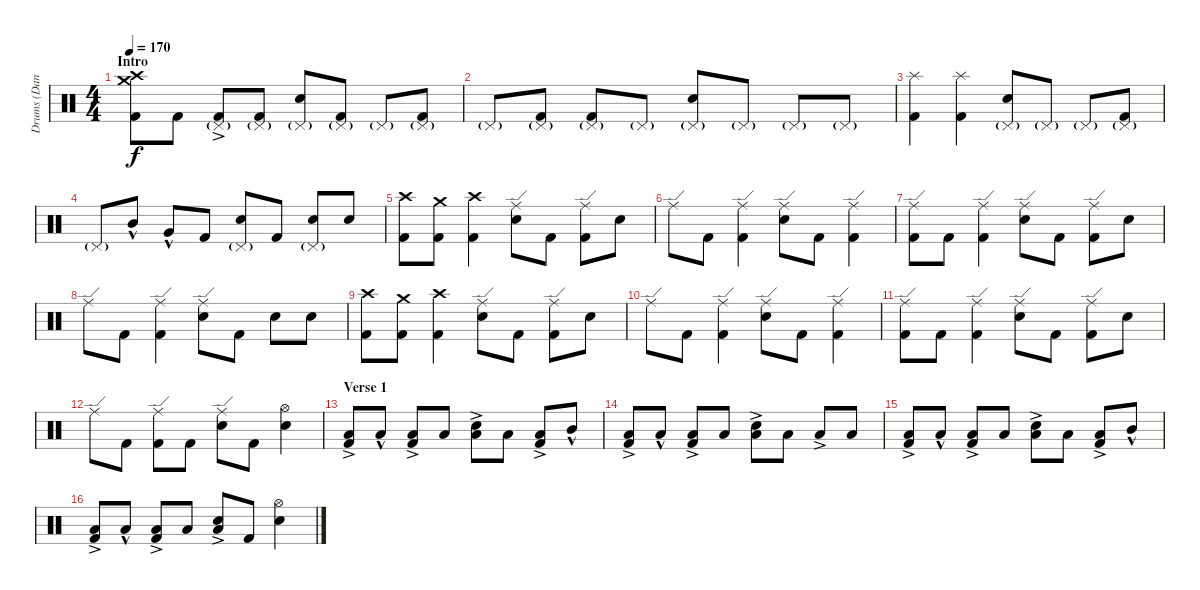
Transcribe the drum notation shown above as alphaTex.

\track ("Drums (Dan Trapp)" "Drums (Dan") {instrument percussion}
\staff {score}
\articulation defaults
\ts (4 4)
\section ("" "Intro")
\tempo 170
\clef neutral
\ks c
("Kick (hit) 2" "Crash medium (hit)" "Crash high (hit)").8{dy f} "Kick (hit) 2".8 ("Kick (hit) 2"{ac} "Pedal Hi-Hat (hit)"{g}).8 ("Kick (hit) 2" "Pedal Hi-Hat (hit)"{g}).8 ("Snare (hit) 2" "Pedal Hi-Hat (hit)"{g}).8 ("Kick (hit) 2" "Pedal Hi-Hat (hit)"{g}).8 "Pedal Hi-Hat (hit)"{g}.8 ("Kick (hit) 2" "Pedal Hi-Hat (hit)"{g}).8 |
"Pedal Hi-Hat (hit)"{g}.8 ("Kick (hit) 2" "Pedal Hi-Hat (hit)"{g}).8 ("Kick (hit) 2" "Pedal Hi-Hat (hit)"{g}).8 "Pedal Hi-Hat (hit)"{g}.8 ("Snare (hit) 2" "Pedal Hi-Hat (hit)"{g}).8 "Pedal Hi-Hat (hit)"{g}.8 "Pedal Hi-Hat (hit)"{g}.8 "Pedal Hi-Hat (hit)"{g}.8 |
("Kick (hit) 2" "Splash (hit)").4 ("Kick (hit) 2" "Splash (hit)").4 ("Snare (hit) 2" "Pedal Hi-Hat (hit)"{g}).8 "Pedal Hi-Hat (hit)"{g}.8 "Pedal Hi-Hat (hit)"{g}.8 ("Kick (hit) 2" "Pedal Hi-Hat (hit)"{g}).8 |
"Pedal Hi-Hat (hit)"{g}.8 "Mid Tom (hit)"{hac}.8 "Very Low Tom (hit)"{hac}.8 "Kick (hit) 2".8 ("Snare (hit) 2" "Pedal Hi-Hat (hit)"{g}).8 "Kick (hit) 2".8 ("Snare (hit) 2" "Pedal Hi-Hat (hit)"{g}).8 "Snare (hit) 2".8 |
("Kick (hit) 2" "Crash high (hit)").8 ("Kick (hit) 2" "Crash medium (hit)").8 ("Kick (hit) 2" "Crash high (hit)").4 ("Snare (hit) 2" "Ride (edge)").8 "Kick (hit) 2".8 ("Kick (hit) 2" "Ride (edge)").8 "Snare (hit) 2".8 |
"Ride (edge)".8 "Kick (hit) 2".8 ("Kick (hit) 2" "Ride (edge)").4 ("Snare (hit) 2" "Ride (edge)").8 "Kick (hit) 2".8 ("Kick (hit) 2" "Ride (edge)").4 |
("Kick (hit) 2" "Ride (edge)").8 "Kick (hit) 2".8 ("Kick (hit) 2" "Ride (edge)").4 ("Snare (hit) 2" "Ride (edge)").8 "Kick (hit) 2".8 ("Kick (hit) 2" "Ride (edge)").8 "Snare (hit) 2".8 |
"Ride (edge)".8 "Kick (hit) 2".8 ("Kick (hit) 2" "Ride (edge)").4 ("Snare (hit) 2" "Ride (edge)").8 "Kick (hit) 2".8 "Snare (hit) 2".8 "Snare (hit) 2".8 |
("Kick (hit) 2" "Crash high (hit)").8 ("Kick (hit) 2" "Crash medium (hit)").8 ("Kick (hit) 2" "Crash high (hit)").4 ("Snare (hit) 2" "Ride (edge)").8 "Kick (hit) 2".8 ("Kick (hit) 2" "Ride (edge)").8 "Snare (hit) 2".8 |
"Ride (edge)".8 "Kick (hit) 2".8 ("Kick (hit) 2" "Ride (edge)").4 ("Snare (hit) 2" "Ride (edge)").8 "Kick (hit) 2".8 ("Kick (hit) 2" "Ride (edge)").4 |
("Kick (hit) 2" "Ride (edge)").8 "Kick (hit) 2".8 ("Kick (hit) 2" "Ride (edge)").4 ("Snare (hit) 2" "Ride (edge)").8 "Kick (hit) 2".8 ("Kick (hit) 2" "Ride (edge)").8 "Snare (hit) 2".8 |
"Ride (edge)".8 "Kick (hit) 2".8 ("Kick (hit) 2" "Ride (edge)").8 "Kick (hit) 2".8 ("Snare (hit) 2" "Ride (edge)").8 "Kick (hit) 2".8 ("Snare (hit) 2" "Hi-Hat (open)").4 |
\section ("" "Verse 1")
("Kick (hit) 2" "Low Tom (hit)"{ac}).8 "Low Tom (hit)"{hac}.8 ("Kick (hit) 2" "Low Tom (hit)"{ac}).8 "Low Tom (hit)".8 ("Low Tom (hit)"{ac} "Snare (hit) 2").8 "Low Tom (hit)".8 ("Kick (hit) 2" "Low Tom (hit)"{ac}).8 "Mid Tom (hit)"{hac}.8 |
("Low Tom (hit)"{ac} "Kick (hit) 2").8 "Low Tom (hit)"{hac}.8 ("Low Tom (hit)"{ac} "Kick (hit) 2").8 "Low Tom (hit)".8 ("Snare (hit) 2" "Low Tom (hit)"{ac}).8 "Low Tom (hit)".8 "Low Tom (hit)"{ac}.8 "Low Tom (hit)".8 |
("Kick (hit) 2" "Low Tom (hit)"{ac}).8 "Low Tom (hit)"{hac}.8 ("Low Tom (hit)"{ac} "Kick (hit) 2").8 "Low Tom (hit)".8 ("Snare (hit) 2" "Low Tom (hit)"{ac}).8 "Low Tom (hit)".8 ("Low Tom (hit)"{ac} "Kick (hit) 2").8 "Mid Tom (hit)"{hac}.8 |
("Kick (hit) 2" "Low Tom (hit)"{ac}).8 "Low Tom (hit)"{hac}.8 ("Low Tom (hit)"{ac} "Kick (hit) 2").8 "Low Tom (hit)".8 ("Snare (hit) 2" "Low Tom (hit)"{ac}).8 "Kick (hit) 2".8 ("Snare (hit) 2" "Hi-Hat (open)").4
